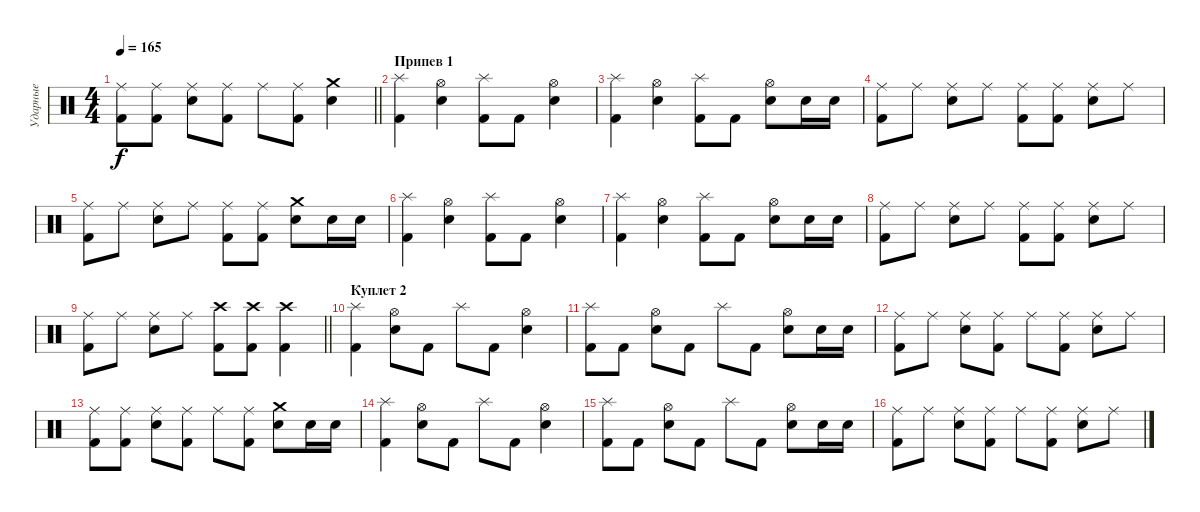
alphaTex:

\track ("Ударные" "Ударные") {instrument percussion}
\staff {score}
\articulation defaults
\ts (4 4)
\tempo 165
\clef neutral
\barLineRight lightlight
\ks c
("Ride (middle)" "Kick (hit) 2").8{dy f} ("Ride (middle)" "Kick (hit) 2").8 ("Ride (middle)" "Electric Snare (hit)").8 ("Ride (middle)" "Kick (hit) 2").8 "Ride (middle)".8 ("Ride (middle)" "Kick (hit) 2").8 ("Crash medium (hit)" "Electric Snare (hit)").4 |
\section ("" "Припев 1")
("Splash (hit)" "Kick (hit) 2").4 ("Hi-Hat (open)" "Electric Snare (hit)").4 ("Splash (hit)" "Kick (hit) 2").8 "Kick (hit) 2".8 ("Hi-Hat (open)" "Electric Snare (hit)").4 |
("Splash (hit)" "Kick (hit) 2").4 ("Hi-Hat (open)" "Electric Snare (hit)").4 ("Splash (hit)" "Kick (hit) 2").8 "Kick (hit) 2".8 ("Hi-Hat (open)" "Electric Snare (hit)").8 "Electric Snare (hit)".16 "Electric Snare (hit)".16 |
("Ride (middle)" "Kick (hit) 2").8 "Ride (middle)".8 ("Ride (middle)" "Electric Snare (hit)").8 "Ride (middle)".8 ("Ride (middle)" "Kick (hit) 2").8 ("Ride (middle)" "Kick (hit) 2").8 ("Ride (middle)" "Electric Snare (hit)").8 "Ride (middle)".8 |
("Ride (middle)" "Kick (hit) 2").8 "Ride (middle)".8 ("Ride (middle)" "Electric Snare (hit)").8 "Ride (middle)".8 ("Ride (middle)" "Kick (hit) 2").8 ("Ride (middle)" "Kick (hit) 2").8 ("Crash medium (hit)" "Electric Snare (hit)").8 "Electric Snare (hit)".16 "Electric Snare (hit)".16 |
("Splash (hit)" "Kick (hit) 2").4 ("Hi-Hat (open)" "Electric Snare (hit)").4 ("Splash (hit)" "Kick (hit) 2").8 "Kick (hit) 2".8 ("Hi-Hat (open)" "Electric Snare (hit)").4 |
("Splash (hit)" "Kick (hit) 2").4 ("Hi-Hat (open)" "Electric Snare (hit)").4 ("Splash (hit)" "Kick (hit) 2").8 "Kick (hit) 2".8 ("Hi-Hat (open)" "Electric Snare (hit)").8 "Electric Snare (hit)".16 "Electric Snare (hit)".16 |
("Ride (middle)" "Kick (hit) 2").8 "Ride (middle)".8 ("Ride (middle)" "Electric Snare (hit)").8 "Ride (middle)".8 ("Ride (middle)" "Kick (hit) 2").8 ("Ride (middle)" "Kick (hit) 2").8 ("Ride (middle)" "Electric Snare (hit)").8 "Ride (middle)".8 |
\barLineRight lightlight
("Ride (middle)" "Kick (hit) 2").8 "Ride (middle)".8 ("Ride (middle)" "Electric Snare (hit)").8 "Ride (middle)".8 ("Crash high (hit)" "Kick (hit) 2").8 ("Crash high (hit)" "Kick (hit) 2").8 ("Crash high (hit)" "Kick (hit) 2").4 |
\section ("" "Куплет 2")
("Splash (hit)" "Kick (hit) 2").4 ("Hi-Hat (open)" "Electric Snare (hit)").8 "Kick (hit) 2".8 "Splash (hit)".8 "Kick (hit) 2".8 ("Hi-Hat (open)" "Electric Snare (hit)").4 |
("Splash (hit)" "Kick (hit) 2").8 "Kick (hit) 2".8 ("Hi-Hat (open)" "Electric Snare (hit)").8 "Kick (hit) 2".8 "Splash (hit)".8 "Kick (hit) 2".8 ("Hi-Hat (open)" "Electric Snare (hit)").8 "Electric Snare (hit)".16 "Electric Snare (hit)".16 |
("Ride (middle)" "Kick (hit) 2").8 "Ride (middle)".8 ("Ride (middle)" "Electric Snare (hit)").8 ("Ride (middle)" "Kick (hit) 2").8 "Ride (middle)".8 ("Ride (middle)" "Kick (hit) 2").8 ("Ride (middle)" "Electric Snare (hit)").8 "Ride (middle)".8 |
("Ride (middle)" "Kick (hit) 2").8 ("Ride (middle)" "Kick (hit) 2").8 ("Ride (middle)" "Electric Snare (hit)").8 ("Ride (middle)" "Kick (hit) 2").8 "Ride (middle)".8 ("Ride (middle)" "Kick (hit) 2").8 ("Crash medium (hit)" "Electric Snare (hit)").8 "Electric Snare (hit)".16 "Electric Snare (hit)".16 |
("Splash (hit)" "Kick (hit) 2").4 ("Hi-Hat (open)" "Electric Snare (hit)").8 "Kick (hit) 2".8 "Splash (hit)".8 "Kick (hit) 2".8 ("Hi-Hat (open)" "Electric Snare (hit)").4 |
("Splash (hit)" "Kick (hit) 2").8 "Kick (hit) 2".8 ("Hi-Hat (open)" "Electric Snare (hit)").8 "Kick (hit) 2".8 "Splash (hit)".8 "Kick (hit) 2".8 ("Hi-Hat (open)" "Electric Snare (hit)").8 "Electric Snare (hit)".16 "Electric Snare (hit)".16 |
("Ride (middle)" "Kick (hit) 2").8 "Ride (middle)".8 ("Ride (middle)" "Electric Snare (hit)").8 ("Ride (middle)" "Kick (hit) 2").8 "Ride (middle)".8 ("Ride (middle)" "Kick (hit) 2").8 ("Ride (middle)" "Electric Snare (hit)").8 "Ride (middle)".8
